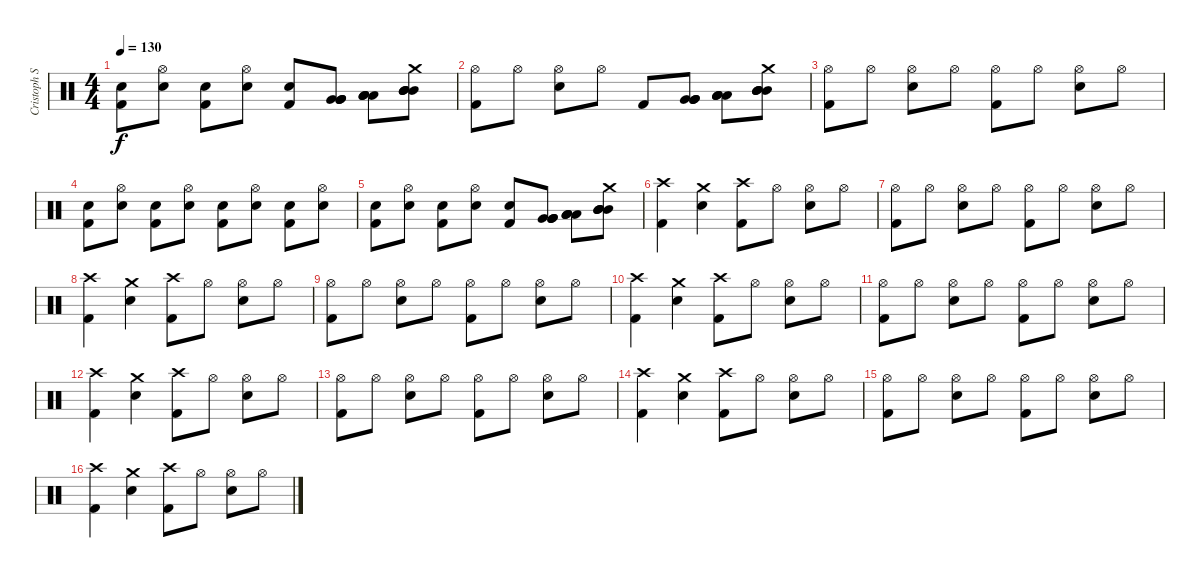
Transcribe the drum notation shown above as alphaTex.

\track ("Cristoph Schneider" "Cristoph S") {instrument percussion}
\staff {score}
\articulation defaults
\ts (4 4)
\tempo 130
\clef neutral
\ks c
("Electric Snare (hit)" "Kick (hit) 2").8{dy f} ("Hi-Hat (open)" "Electric Snare (hit)").8 ("Electric Snare (hit)" "Kick (hit) 2").8 ("Hi-Hat (open)" "Electric Snare (hit)").8 ("Electric Snare (hit)" "Kick (hit) 2").8 ("Very Low Tom (hit)" "Very Low Tom (hit)" "Very Low Tom (hit)" "Very Low Tom (hit)").8 ("Low Floor Tom (hit)" "Low Floor Tom (hit)" "Low Floor Tom (hit)" "Low Floor Tom (hit)").8 ("Mid Tom (hit)" "Mid Tom (hit)" "Mid Tom (hit)" "Mid Tom (hit)" "Crash medium (hit)").8 |
("Hi-Hat (open)" "Kick (hit) 2").8 "Hi-Hat (open)".8 ("Hi-Hat (open)" "Electric Snare (hit)").8 "Hi-Hat (open)".8 "Kick (hit) 2".8 ("Very Low Tom (hit)" "Very Low Tom (hit)" "Very Low Tom (hit)" "Very Low Tom (hit)").8 ("Low Floor Tom (hit)" "Low Floor Tom (hit)" "Low Floor Tom (hit)" "Low Floor Tom (hit)").8 ("Mid Tom (hit)" "Mid Tom (hit)" "Mid Tom (hit)" "Mid Tom (hit)" "Crash medium (hit)").8 |
("Hi-Hat (open)" "Kick (hit) 2").8 "Hi-Hat (open)".8 ("Hi-Hat (open)" "Electric Snare (hit)").8 "Hi-Hat (open)".8 ("Hi-Hat (open)" "Kick (hit) 2").8 "Hi-Hat (open)".8 ("Hi-Hat (open)" "Electric Snare (hit)").8 "Hi-Hat (open)".8 |
("Electric Snare (hit)" "Kick (hit) 2").8 ("Hi-Hat (open)" "Electric Snare (hit)").8 ("Electric Snare (hit)" "Kick (hit) 2").8 ("Hi-Hat (open)" "Electric Snare (hit)").8 ("Electric Snare (hit)" "Kick (hit) 2").8 ("Hi-Hat (open)" "Electric Snare (hit)").8 ("Electric Snare (hit)" "Kick (hit) 2").8 ("Hi-Hat (open)" "Electric Snare (hit)").8 |
("Electric Snare (hit)" "Kick (hit) 2").8 ("Hi-Hat (open)" "Electric Snare (hit)").8 ("Electric Snare (hit)" "Kick (hit) 2").8 ("Hi-Hat (open)" "Electric Snare (hit)").8 ("Electric Snare (hit)" "Kick (hit) 2").8 ("Very Low Tom (hit)" "Very Low Tom (hit)" "Very Low Tom (hit)" "Very Low Tom (hit)").8 ("Low Floor Tom (hit)" "Low Floor Tom (hit)" "Low Floor Tom (hit)" "Low Floor Tom (hit)").8 ("Mid Tom (hit)" "Mid Tom (hit)" "Mid Tom (hit)" "Mid Tom (hit)" "Crash medium (hit)").8 |
("Crash high (hit)" "Kick (hit) 2").4 ("Crash medium (hit)" "Electric Snare (hit)").4 ("Crash high (hit)" "Kick (hit) 2").8 "Hi-Hat (open)".8 ("Hi-Hat (open)" "Electric Snare (hit)").8 "Hi-Hat (open)".8 |
("Hi-Hat (open)" "Kick (hit) 2").8 "Hi-Hat (open)".8 ("Hi-Hat (open)" "Electric Snare (hit)").8 "Hi-Hat (open)".8 ("Hi-Hat (open)" "Kick (hit) 2").8 "Hi-Hat (open)".8 ("Hi-Hat (open)" "Electric Snare (hit)").8 "Hi-Hat (open)".8 |
("Crash high (hit)" "Kick (hit) 2").4 ("Crash medium (hit)" "Electric Snare (hit)").4 ("Crash high (hit)" "Kick (hit) 2").8 "Hi-Hat (open)".8 ("Hi-Hat (open)" "Electric Snare (hit)").8 "Hi-Hat (open)".8 |
("Hi-Hat (open)" "Kick (hit) 2").8 "Hi-Hat (open)".8 ("Hi-Hat (open)" "Electric Snare (hit)").8 "Hi-Hat (open)".8 ("Hi-Hat (open)" "Kick (hit) 2").8 "Hi-Hat (open)".8 ("Hi-Hat (open)" "Electric Snare (hit)").8 "Hi-Hat (open)".8 |
("Crash high (hit)" "Kick (hit) 2").4 ("Crash medium (hit)" "Electric Snare (hit)").4 ("Crash high (hit)" "Kick (hit) 2").8 "Hi-Hat (open)".8 ("Hi-Hat (open)" "Electric Snare (hit)").8 "Hi-Hat (open)".8 |
("Hi-Hat (open)" "Kick (hit) 2").8 "Hi-Hat (open)".8 ("Hi-Hat (open)" "Electric Snare (hit)").8 "Hi-Hat (open)".8 ("Hi-Hat (open)" "Kick (hit) 2").8 "Hi-Hat (open)".8 ("Hi-Hat (open)" "Electric Snare (hit)").8 "Hi-Hat (open)".8 |
("Crash high (hit)" "Kick (hit) 2").4 ("Crash medium (hit)" "Electric Snare (hit)").4 ("Crash high (hit)" "Kick (hit) 2").8 "Hi-Hat (open)".8 ("Hi-Hat (open)" "Electric Snare (hit)").8 "Hi-Hat (open)".8 |
("Hi-Hat (open)" "Kick (hit) 2").8 "Hi-Hat (open)".8 ("Hi-Hat (open)" "Electric Snare (hit)").8 "Hi-Hat (open)".8 ("Hi-Hat (open)" "Kick (hit) 2").8 "Hi-Hat (open)".8 ("Hi-Hat (open)" "Electric Snare (hit)").8 "Hi-Hat (open)".8 |
("Crash high (hit)" "Kick (hit) 2").4 ("Crash medium (hit)" "Electric Snare (hit)").4 ("Crash high (hit)" "Kick (hit) 2").8 "Hi-Hat (open)".8 ("Hi-Hat (open)" "Electric Snare (hit)").8 "Hi-Hat (open)".8 |
("Hi-Hat (open)" "Kick (hit) 2").8 "Hi-Hat (open)".8 ("Hi-Hat (open)" "Electric Snare (hit)").8 "Hi-Hat (open)".8 ("Hi-Hat (open)" "Kick (hit) 2").8 "Hi-Hat (open)".8 ("Hi-Hat (open)" "Electric Snare (hit)").8 "Hi-Hat (open)".8 |
("Crash high (hit)" "Kick (hit) 2").4 ("Crash medium (hit)" "Electric Snare (hit)").4 ("Crash high (hit)" "Kick (hit) 2").8 "Hi-Hat (open)".8 ("Hi-Hat (open)" "Electric Snare (hit)").8 "Hi-Hat (open)".8
